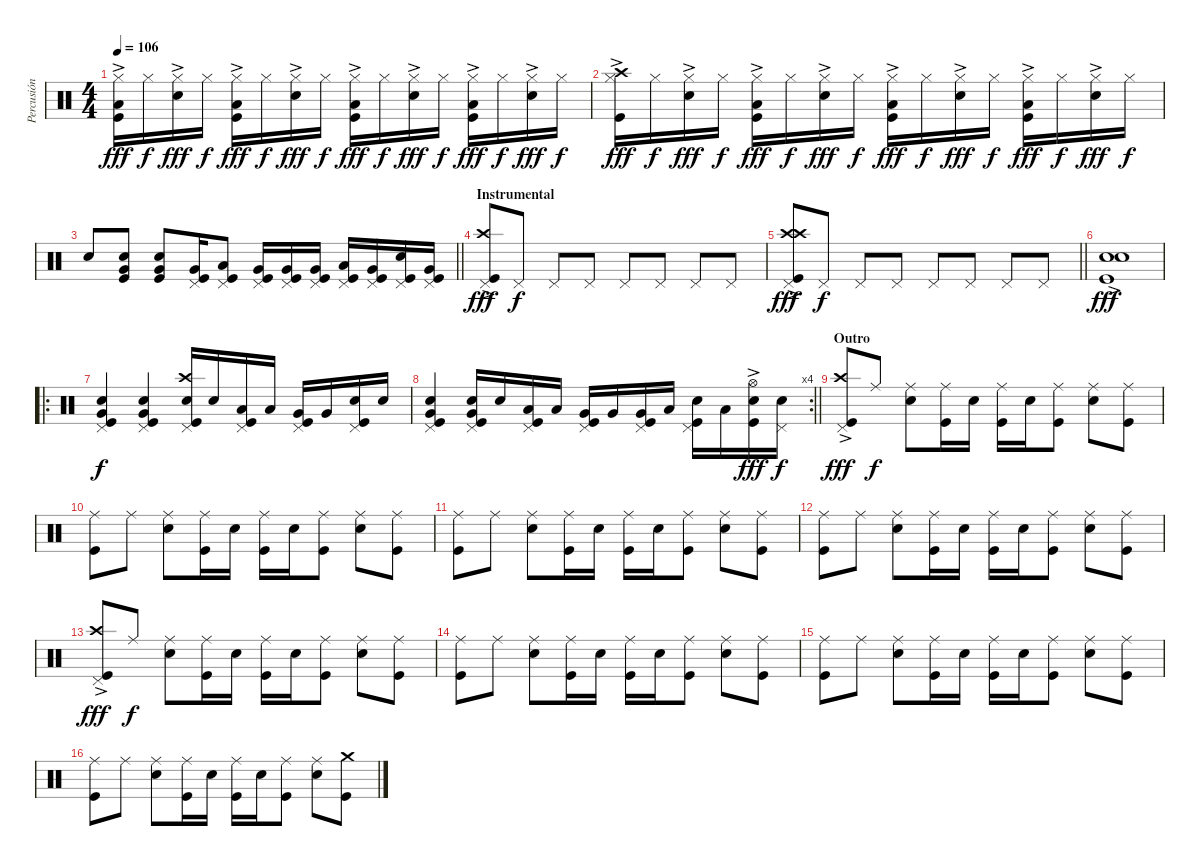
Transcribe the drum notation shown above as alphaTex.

\track ("Percusión" "Percusión") {instrument percussion}
\staff {score}
\articulation defaults
\ts (4 4)
\tempo 106
\clef neutral
\ks c
("Low Tom (hit)" "Hi-Hat (closed)"{ac} "Kick (hit)").16{dy fff} "Hi-Hat (closed)".16{dy f} ("Hi-Hat (closed)"{ac} "Snare (hit) 2").16{dy fff} "Hi-Hat (closed)".16{dy f} ("Low Tom (hit)" "Hi-Hat (closed)"{ac} "Kick (hit)").16{dy fff} "Hi-Hat (closed)".16{dy f} ("Hi-Hat (closed)"{ac} "Snare (hit) 2").16{dy fff} "Hi-Hat (closed)".16{dy f} ("Low Tom (hit)" "Hi-Hat (closed)"{ac} "Kick (hit)").16{dy fff} "Hi-Hat (closed)".16{dy f} ("Hi-Hat (closed)"{ac} "Snare (hit) 2").16{dy fff} "Hi-Hat (closed)".16{dy f} ("Low Tom (hit)" "Hi-Hat (closed)"{ac} "Kick (hit)").16{dy fff} "Hi-Hat (closed)".16{dy f} ("Hi-Hat (closed)"{ac} "Snare (hit) 2").16{dy fff} "Hi-Hat (closed)".16{dy f} |
("Crash high (hit)"{ac} "Hi-Hat (closed)"{ac} "Kick (hit)").16{dy fff} "Hi-Hat (closed)".16{dy f} ("Hi-Hat (closed)"{ac} "Snare (hit) 2").16{dy fff} "Hi-Hat (closed)".16{dy f} ("Low Tom (hit)" "Hi-Hat (closed)"{ac} "Kick (hit)").16{dy fff} "Hi-Hat (closed)".16{dy f} ("Hi-Hat (closed)"{ac} "Snare (hit) 2").16{dy fff} "Hi-Hat (closed)".16{dy f} ("Low Tom (hit)" "Hi-Hat (closed)"{ac} "Kick (hit)").16{dy fff} "Hi-Hat (closed)".16{dy f} ("Hi-Hat (closed)"{ac} "Snare (hit) 2").16{dy fff} "Hi-Hat (closed)".16{dy f} ("Low Tom (hit)" "Hi-Hat (closed)"{ac} "Kick (hit)").16{dy fff} "Hi-Hat (closed)".16{dy f} ("Hi-Hat (closed)"{ac} "Snare (hit) 2").16{dy fff} "Hi-Hat (closed)".16{dy f} |
\barLineRight lightlight "Snare (hit) 2".8
("Very Low Tom (hit)" "Snare (hit) 2" "Kick (hit)").8 ("Very Low Tom (hit)" "Snare (hit) 2" "Kick (hit)").8 ("Very Low Tom (hit)" "Pedal Hi-Hat (hit)" "Kick (hit)").16 ("Low Tom (hit)" "Pedal Hi-Hat (hit)" "Kick (hit)").8 ("Very Low Tom (hit)" "Pedal Hi-Hat (hit)" "Kick (hit)").16 ("Very Low Tom (hit)" "Pedal Hi-Hat (hit)" "Kick (hit)").16 ("Very Low Tom (hit)" "Pedal Hi-Hat (hit)" "Kick (hit)").16 ("Low Tom (hit)" "Pedal Hi-Hat (hit)" "Kick (hit)").16 ("Very Low Tom (hit)" "Pedal Hi-Hat (hit)" "Kick (hit)").16 ("Pedal Hi-Hat (hit)" "Snare (hit) 2" "Kick (hit)").16 ("Very Low Tom (hit)" "Pedal Hi-Hat (hit)" "Kick (hit)").16 |
\section ("" "Instrumental")
("Crash high (hit)"{ac} "Pedal Hi-Hat (hit)" "Kick (hit)").8{dy fff} "Pedal Hi-Hat (hit)".8{dy f} "Pedal Hi-Hat (hit)".8 "Pedal Hi-Hat (hit)".8 "Pedal Hi-Hat (hit)".8 "Pedal Hi-Hat (hit)".8 "Pedal Hi-Hat (hit)".8 "Pedal Hi-Hat (hit)".8 |
\barLineRight lightlight
("Crash high (hit)"{ac} "Crash high (hit)"{ac} "Pedal Hi-Hat (hit)" "Kick (hit)").8{dy fff} "Pedal Hi-Hat (hit)".8{dy f} "Pedal Hi-Hat (hit)".8 "Pedal Hi-Hat (hit)".8 "Pedal Hi-Hat (hit)".8 "Pedal Hi-Hat (hit)".8 "Pedal Hi-Hat (hit)".8 "Pedal Hi-Hat (hit)".8 |
("Snare (hit) 2"{ac} "Snare (hit) 2"{ac} "Kick (hit)"{ac}).1{dy fff} |
\ro
("Very Low Tom (hit)" "Pedal Hi-Hat (hit)" "Snare (hit) 2" "Kick (hit)").4{dy f} ("Very Low Tom (hit)" "Pedal Hi-Hat (hit)" "Snare (hit) 2" "Kick (hit)").4 ("Crash high (hit)" "Pedal Hi-Hat (hit)" "Snare (hit) 2" "Kick (hit)").16 "Snare (hit) 2".16 ("Low Tom (hit)" "Pedal Hi-Hat (hit)" "Kick (hit)").16 "Low Tom (hit)".16 ("Very Low Tom (hit)" "Pedal Hi-Hat (hit)" "Kick (hit)").16 "Very Low Tom (hit)".16 ("Pedal Hi-Hat (hit)" "Snare (hit) 2" "Kick (hit)").16 "Snare (hit) 2".16 |
\rc 4
\barLineRight lightlight
("Very Low Tom (hit)" "Pedal Hi-Hat (hit)" "Snare (hit) 2" "Kick (hit)").4 ("Very Low Tom (hit)" "Pedal Hi-Hat (hit)" "Snare (hit) 2" "Kick (hit)").16 "Snare (hit) 2".16 ("Low Tom (hit)" "Pedal Hi-Hat (hit)" "Kick (hit)").16 "Low Tom (hit)".16 ("Very Low Tom (hit)" "Pedal Hi-Hat (hit)" "Kick (hit)").16 "Very Low Tom (hit)".16 ("Very Low Tom (hit)" "Pedal Hi-Hat (hit)" "Kick (hit)").16 "Low Tom (hit)".16 ("Pedal Hi-Hat (hit)" "Snare (hit) 2" "Kick (hit)").16 "Low Tom (hit)".16 ("Hi-Hat (open)"{ac} "Snare (hit) 2" "Kick (hit)").16{dy fff} ("Pedal Hi-Hat (hit)" "Snare (hit) 2").16{dy f} |
\section ("" "Outro")
("Crash high (hit)"{ac} "Pedal Hi-Hat (hit)" "Kick (hit)").8{dy fff} "Ride (middle)".8{dy f} ("Ride (middle)" "Snare (hit) 2").8 ("Ride (middle)" "Kick (hit)").16 "Snare (hit) 2".16 ("Ride (middle)" "Kick (hit)").16 "Snare (hit) 2".16 ("Ride (middle)" "Kick (hit)").8 ("Ride (middle)" "Snare (hit) 2").8 ("Ride (middle)" "Kick (hit)").8 |
("Ride (middle)" "Kick (hit)").8 "Ride (middle)".8 ("Ride (middle)" "Snare (hit) 2").8 ("Ride (middle)" "Kick (hit)").16 "Snare (hit) 2".16 ("Ride (middle)" "Kick (hit)").16 "Snare (hit) 2".16 ("Ride (middle)" "Kick (hit)").8 ("Ride (middle)" "Snare (hit) 2").8 ("Ride (middle)" "Kick (hit)").8 |
("Ride (middle)" "Kick (hit)").8 "Ride (middle)".8 ("Ride (middle)" "Snare (hit) 2").8 ("Ride (middle)" "Kick (hit)").16 "Snare (hit) 2".16 ("Ride (middle)" "Kick (hit)").16 "Snare (hit) 2".16 ("Ride (middle)" "Kick (hit)").8 ("Ride (middle)" "Snare (hit) 2").8 ("Ride (middle)" "Kick (hit)").8 |
("Ride (middle)" "Kick (hit)").8 "Ride (middle)".8 ("Ride (middle)" "Snare (hit) 2").8 ("Ride (middle)" "Kick (hit)").16 "Snare (hit) 2".16 ("Ride (middle)" "Kick (hit)").16 "Snare (hit) 2".16 ("Ride (middle)" "Kick (hit)").8 ("Ride (middle)" "Snare (hit) 2").8 ("Ride (middle)" "Kick (hit)").8 |
("Crash high (hit)"{ac} "Pedal Hi-Hat (hit)" "Kick (hit)").8{dy fff} "Ride (middle)".8{dy f} ("Ride (middle)" "Snare (hit) 2").8 ("Ride (middle)" "Kick (hit)").16 "Snare (hit) 2".16 ("Ride (middle)" "Kick (hit)").16 "Snare (hit) 2".16 ("Ride (middle)" "Kick (hit)").8 ("Ride (middle)" "Snare (hit) 2").8 ("Ride (middle)" "Kick (hit)").8 |
("Ride (middle)" "Kick (hit)").8 "Ride (middle)".8 ("Ride (middle)" "Snare (hit) 2").8 ("Ride (middle)" "Kick (hit)").16 "Snare (hit) 2".16 ("Ride (middle)" "Kick (hit)").16 "Snare (hit) 2".16 ("Ride (middle)" "Kick (hit)").8 ("Ride (middle)" "Snare (hit) 2").8 ("Ride (middle)" "Kick (hit)").8 |
("Ride (middle)" "Kick (hit)").8 "Ride (middle)".8 ("Ride (middle)" "Snare (hit) 2").8 ("Ride (middle)" "Kick (hit)").16 "Snare (hit) 2".16 ("Ride (middle)" "Kick (hit)").16 "Snare (hit) 2".16 ("Ride (middle)" "Kick (hit)").8 ("Ride (middle)" "Snare (hit) 2").8 ("Ride (middle)" "Kick (hit)").8 |
("Ride (middle)" "Kick (hit)").8 "Ride (middle)".8 ("Ride (middle)" "Snare (hit) 2").8 ("Ride (middle)" "Kick (hit)").16 "Snare (hit) 2".16 ("Ride (middle)" "Kick (hit)").16 "Snare (hit) 2".16 ("Ride (middle)" "Kick (hit)").8 ("Ride (middle)" "Snare (hit) 2").8 ("Crash medium (hit)" "Kick (hit)").8
